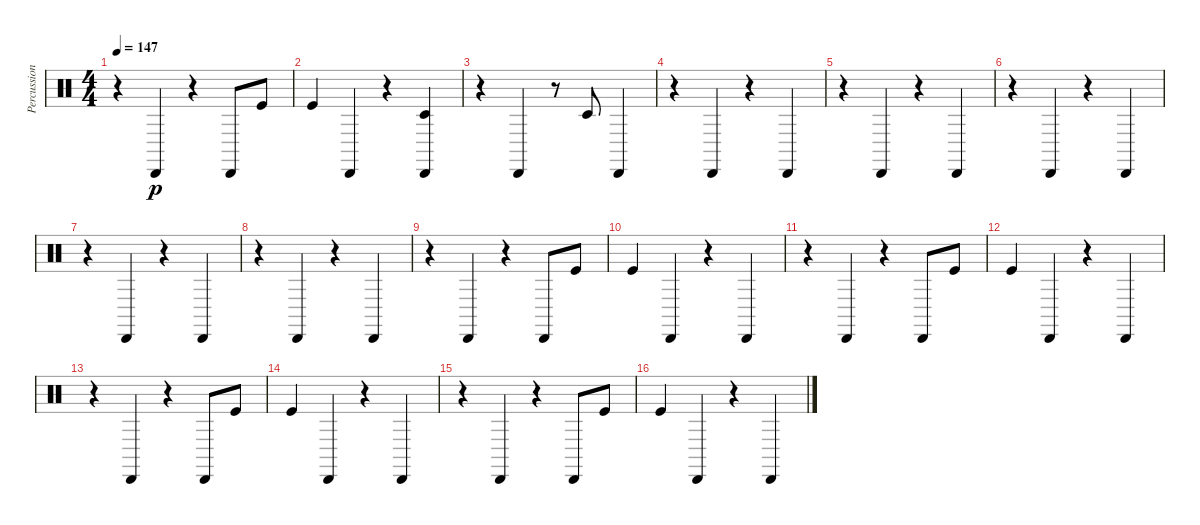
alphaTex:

\track ("Percussions" "Percussion") {instrument percussion}
\staff {score}
\articulation defaults
\ts (4 4)
\tempo 147
\clef neutral
\ks c
r.4{dy p} "Cabasa (hit)".4 r.4 "Cabasa (hit)".8 "Kick (hit)".8 |
"Kick (hit)".4 "Cabasa (hit)".4 r.4 ("Cabasa (hit)" "Timbale low (hit)").4 |
r.4 "Cabasa (hit)".4 r.8 "Timbale low (hit)".8 "Cabasa (hit)".4 |
r.4 "Cabasa (hit)".4 r.4 "Cabasa (hit)".4 |
r.4 "Cabasa (hit)".4 r.4 "Cabasa (hit)".4 |
r.4 "Cabasa (hit)".4 r.4 "Cabasa (hit)".4 |
r.4 "Cabasa (hit)".4 r.4 "Cabasa (hit)".4 |
r.4 "Cabasa (hit)".4 r.4 "Cabasa (hit)".4 |
r.4 "Cabasa (hit)".4 r.4 "Cabasa (hit)".8 "Kick (hit)".8 |
"Kick (hit)".4 "Cabasa (hit)".4 r.4 "Cabasa (hit)".4 |
r.4 "Cabasa (hit)".4 r.4 "Cabasa (hit)".8 "Kick (hit)".8 |
"Kick (hit)".4 "Cabasa (hit)".4 r.4 "Cabasa (hit)".4 |
r.4 "Cabasa (hit)".4 r.4 "Cabasa (hit)".8 "Kick (hit)".8 |
"Kick (hit)".4 "Cabasa (hit)".4 r.4 "Cabasa (hit)".4 |
r.4 "Cabasa (hit)".4 r.4 "Cabasa (hit)".8 "Kick (hit)".8 |
"Kick (hit)".4 "Cabasa (hit)".4 r.4 "Cabasa (hit)".4
